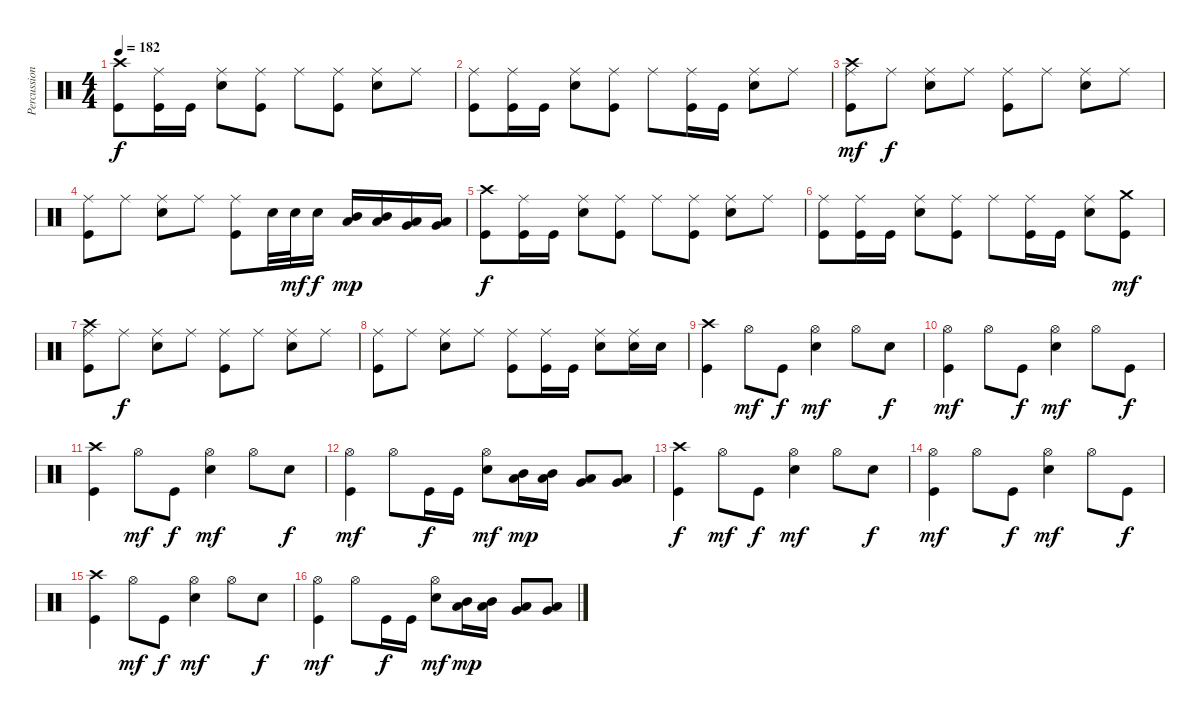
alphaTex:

\track ("Percussions" "Percussion") {instrument percussion}
\staff {score}
\articulation defaults
\ts (4 4)
\tempo 182
\clef neutral
\ks c
("Kick (hit)" "Crash high (hit)").8{dy f} ("Kick (hit)" "Ride (middle)").16 "Kick (hit)".16 ("Electric Snare (hit)" "Ride (middle)").8 ("Kick (hit)" "Ride (middle)").8 "Ride (middle)".8 ("Kick (hit)" "Ride (middle)").8 ("Electric Snare (hit)" "Ride (middle)").8 "Ride (middle)".8 |
("Kick (hit)" "Ride (middle)").8 ("Kick (hit)" "Ride (middle)").16 "Kick (hit)".16 ("Electric Snare (hit)" "Ride (middle)").8 ("Kick (hit)" "Ride (middle)").8 "Ride (middle)".8 ("Kick (hit)" "Ride (middle)").16 "Kick (hit)".16 ("Electric Snare (hit)" "Ride (middle)").8 "Ride (middle)".8 |
("Kick (hit)" "Ride (middle)" "Crash high (hit)").8{dy mf} "Ride (middle)".8{dy f} ("Electric Snare (hit)" "Ride (middle)").8 "Ride (middle)".8 ("Kick (hit)" "Ride (middle)").8 "Ride (middle)".8 ("Electric Snare (hit)" "Ride (middle)").8 "Ride (middle)".8 |
("Kick (hit)" "Ride (middle)").8 "Ride (middle)".8 ("Electric Snare (hit)" "Ride (middle)").8 "Ride (middle)".8 ("Kick (hit)" "Ride (middle)").8 "Electric Snare (hit)".32 "Electric Snare (hit)".32{dy mf} "Electric Snare (hit)".16{dy f} ("Low Tom (hit)" "Mid Tom (hit)").16{dy mp} ("Low Tom (hit)" "Mid Tom (hit)").16 ("Very Low Tom (hit)" "Low Tom (hit)").16 ("Very Low Tom (hit)" "Low Tom (hit)").16 |
("Kick (hit)" "Crash high (hit)").8{dy f} ("Kick (hit)" "Ride (middle)").16 "Kick (hit)".16 ("Electric Snare (hit)" "Ride (middle)").8 ("Kick (hit)" "Ride (middle)").8 "Ride (middle)".8 ("Kick (hit)" "Ride (middle)").8 ("Electric Snare (hit)" "Ride (middle)").8 "Ride (middle)".8 |
("Kick (hit)" "Ride (middle)").8 ("Kick (hit)" "Ride (middle)").16 "Kick (hit)".16 ("Electric Snare (hit)" "Ride (middle)").8 ("Kick (hit)" "Ride (middle)").8 "Ride (middle)".8 ("Kick (hit)" "Ride (middle)").16 "Kick (hit)".16 ("Electric Snare (hit)" "Ride (middle)").8 ("Kick (hit)" "Crash medium (hit)").8{dy mf} |
("Kick (hit)" "Ride (middle)" "Crash high (hit)").8 "Ride (middle)".8{dy f} ("Electric Snare (hit)" "Ride (middle)").8 "Ride (middle)".8 ("Kick (hit)" "Ride (middle)").8 "Ride (middle)".8 ("Electric Snare (hit)" "Ride (middle)").8 "Ride (middle)".8 |
("Kick (hit)" "Ride (middle)").8 "Ride (middle)".8 ("Electric Snare (hit)" "Ride (middle)").8 "Ride (middle)".8 ("Kick (hit)" "Ride (middle)").8 ("Kick (hit)" "Ride (middle)").16 "Kick (hit)".16 ("Electric Snare (hit)" "Ride (middle)").8 ("Electric Snare (hit)" "Ride (middle)").16 "Electric Snare (hit)".16 |
("Kick (hit)" "Crash high (hit)").4 "Hi-Hat (open)".8{dy mf} "Kick (hit)".8{dy f} ("Electric Snare (hit)" "Hi-Hat (open)").4{dy mf} "Hi-Hat (open)".8 "Electric Snare (hit)".8{dy f} |
("Kick (hit)" "Hi-Hat (open)").4{dy mf} "Hi-Hat (open)".8 "Kick (hit)".8{dy f} ("Electric Snare (hit)" "Hi-Hat (open)").4{dy mf} "Hi-Hat (open)".8 "Kick (hit)".8{dy f} |
("Kick (hit)" "Crash high (hit)").4 "Hi-Hat (open)".8{dy mf} "Kick (hit)".8{dy f} ("Electric Snare (hit)" "Hi-Hat (open)").4{dy mf} "Hi-Hat (open)".8 "Electric Snare (hit)".8{dy f} |
("Kick (hit)" "Hi-Hat (open)").4{dy mf} "Hi-Hat (open)".8 "Kick (hit)".16{dy f} "Kick (hit)".16 ("Electric Snare (hit)" "Hi-Hat (open)").8{dy mf} ("Low Tom (hit)" "Mid Tom (hit)").16{dy mp} ("Low Tom (hit)" "Mid Tom (hit)").16 ("Very Low Tom (hit)" "Low Tom (hit)").8 ("Low Floor Tom (hit)" "Very Low Tom (hit)").8 |
("Kick (hit)" "Crash high (hit)").4{dy f} "Hi-Hat (open)".8{dy mf} "Kick (hit)".8{dy f} ("Electric Snare (hit)" "Hi-Hat (open)").4{dy mf} "Hi-Hat (open)".8 "Electric Snare (hit)".8{dy f} |
("Kick (hit)" "Hi-Hat (open)").4{dy mf} "Hi-Hat (open)".8 "Kick (hit)".8{dy f} ("Electric Snare (hit)" "Hi-Hat (open)").4{dy mf} "Hi-Hat (open)".8 "Kick (hit)".8{dy f} |
("Kick (hit)" "Crash high (hit)").4 "Hi-Hat (open)".8{dy mf} "Kick (hit)".8{dy f} ("Electric Snare (hit)" "Hi-Hat (open)").4{dy mf} "Hi-Hat (open)".8 "Electric Snare (hit)".8{dy f} |
("Kick (hit)" "Hi-Hat (open)").4{dy mf} "Hi-Hat (open)".8 "Kick (hit)".16{dy f} "Kick (hit)".16 ("Electric Snare (hit)" "Hi-Hat (open)").8{dy mf} ("Low Tom (hit)" "Mid Tom (hit)").16{dy mp} ("Low Tom (hit)" "Mid Tom (hit)").16 ("Very Low Tom (hit)" "Low Tom (hit)").8 ("Low Floor Tom (hit)" "Very Low Tom (hit)").8
